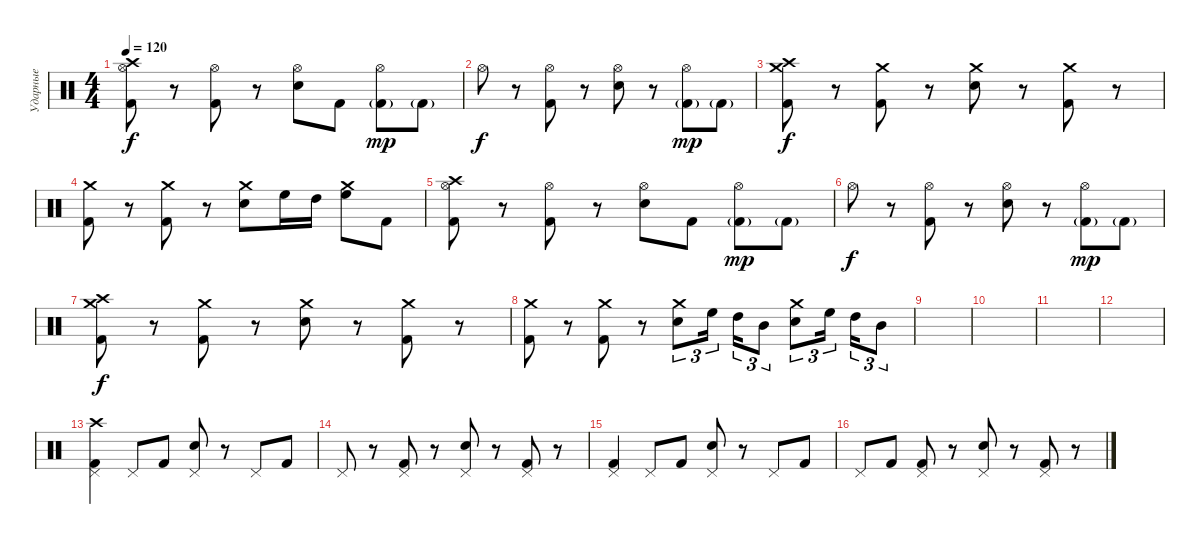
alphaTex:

\track ("Ударные" "Ударные") {instrument percussion}
\staff {score}
\articulation defaults
\ts (4 4)
\tempo 120
\clef neutral
\ks c
("Hi-Hat (open)" "Crash high (hit)" "Kick (hit) 2").8{dy f} r.8 ("Hi-Hat (open)" "Kick (hit) 2").8 r.8 ("Hi-Hat (open)" "Electric Snare (hit)").8 "Kick (hit) 2".8 ("Hi-Hat (open)" "Kick (hit) 2"{g}).8{dy mp} "Kick (hit) 2"{g}.8 |
"Hi-Hat (open)".8{dy f} r.8 ("Hi-Hat (open)" "Kick (hit) 2").8 r.8 ("Hi-Hat (open)" "Electric Snare (hit)").8 r.8 ("Hi-Hat (open)" "Kick (hit) 2"{g}).8{dy mp} "Kick (hit) 2"{g}.8 |
("Crash medium (hit)" "Crash high (hit)" "Kick (hit) 2").8{dy f} r.8 ("Crash medium (hit)" "Kick (hit) 2").8 r.8 ("Crash medium (hit)" "Electric Snare (hit)").8 r.8 ("Crash medium (hit)" "Kick (hit) 2").8 r.8 |
("Crash medium (hit)" "Kick (hit) 2").8 r.8 ("Crash medium (hit)" "Kick (hit) 2").8 r.8 ("Crash medium (hit)" "Electric Snare (hit)").8 "High Floor Tom (hit)".16 "High Tom (hit)".16 ("Crash medium (hit)" "High Floor Tom (hit)").8 "Kick (hit) 2".8 |
("Hi-Hat (open)" "Crash high (hit)" "Kick (hit) 2").8 r.8 ("Hi-Hat (open)" "Kick (hit) 2").8 r.8 ("Hi-Hat (open)" "Electric Snare (hit)").8 "Kick (hit) 2".8 ("Hi-Hat (open)" "Kick (hit) 2"{g}).8{dy mp} "Kick (hit) 2"{g}.8 |
"Hi-Hat (open)".8{dy f} r.8 ("Hi-Hat (open)" "Kick (hit) 2").8 r.8 ("Hi-Hat (open)" "Electric Snare (hit)").8 r.8 ("Hi-Hat (open)" "Kick (hit) 2"{g}).8{dy mp} "Kick (hit) 2"{g}.8 |
("Crash medium (hit)" "Crash high (hit)" "Kick (hit) 2").8{dy f} r.8 ("Crash medium (hit)" "Kick (hit) 2").8 r.8 ("Crash medium (hit)" "Electric Snare (hit)").8 r.8 ("Crash medium (hit)" "Kick (hit) 2").8 r.8 |
("Crash medium (hit)" "Kick (hit) 2").8 r.8 ("Crash medium (hit)" "Kick (hit) 2").8 r.8 ("Crash medium (hit)" "Electric Snare (hit)").8{tu (3 2)} "High Floor Tom (hit)".16{tu (3 2) beam splitsecondary} "High Tom (hit)".16{tu (3 2)} "Mid Tom (hit)".8{tu (3 2)} ("Crash medium (hit)" "Electric Snare (hit)").8{tu (3 2)} "High Floor Tom (hit)".16{tu (3 2) beam splitsecondary} "High Tom (hit)".16{tu (3 2)} "Mid Tom (hit)".8{tu (3 2)} |
|
|
|
|
("Pedal Hi-Hat (hit)" "Crash high (hit)" "Kick (hit) 2").4 "Pedal Hi-Hat (hit)".8 "Kick (hit) 2".8 ("Pedal Hi-Hat (hit)" "Electric Snare (hit)").8 r.8 "Pedal Hi-Hat (hit)".8 "Kick (hit) 2".8 |
"Pedal Hi-Hat (hit)".8 r.8 ("Pedal Hi-Hat (hit)" "Kick (hit) 2").8 r.8 ("Pedal Hi-Hat (hit)" "Electric Snare (hit)").8 r.8 ("Pedal Hi-Hat (hit)" "Kick (hit) 2").8 r.8 |
("Pedal Hi-Hat (hit)" "Kick (hit) 2").4 "Pedal Hi-Hat (hit)".8 "Kick (hit) 2".8 ("Pedal Hi-Hat (hit)" "Electric Snare (hit)").8 r.8 "Pedal Hi-Hat (hit)".8 "Kick (hit) 2".8 |
"Pedal Hi-Hat (hit)".8 "Kick (hit) 2".8 ("Pedal Hi-Hat (hit)" "Kick (hit) 2").8 r.8 ("Pedal Hi-Hat (hit)" "Electric Snare (hit)").8 r.8 ("Pedal Hi-Hat (hit)" "Kick (hit) 2").8 r.8
